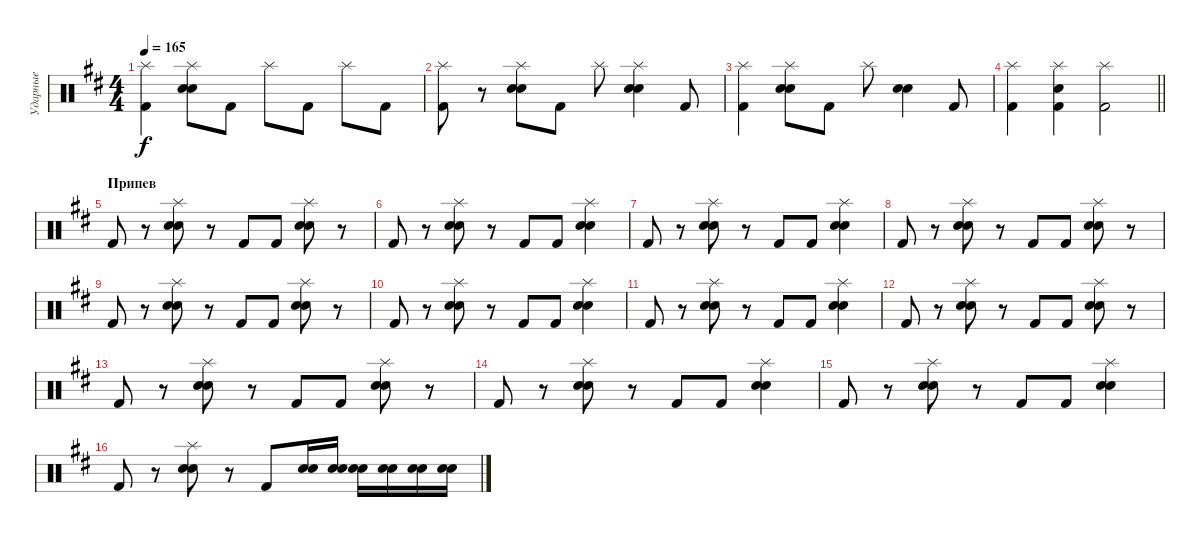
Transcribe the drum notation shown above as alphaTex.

\track ("Ударные" "Ударные") {instrument percussion}
\staff {score}
\articulation defaults
\ts (4 4)
\tempo 165
\clef neutral
\ks bminor
("Splash (hit)" "Kick (hit) 2").4{dy f} ("Splash (hit)" "Electric Snare (hit)" "Snare (hit) 2").8 "Kick (hit) 2".8 "Splash (hit)".8 "Kick (hit) 2".8 "Splash (hit)".8 "Kick (hit) 2".8 |
("Splash (hit)" "Kick (hit) 2").8 r.8 ("Splash (hit)" "Electric Snare (hit)" "Snare (hit) 2").8 "Kick (hit) 2".8 "Splash (hit)".8 ("Splash (hit)" "Electric Snare (hit)" "Snare (hit) 2").4 "Kick (hit) 2".8 |
("Splash (hit)" "Kick (hit) 2").4 ("Splash (hit)" "Electric Snare (hit)" "Snare (hit) 2").8 "Kick (hit) 2".8 "Splash (hit)".8 ("Electric Snare (hit)" "Snare (hit) 2").4 "Kick (hit) 2".8 |
\barLineRight lightlight
("Splash (hit)" "Kick (hit) 2").4 ("Splash (hit)" "Snare (hit) 2" "Kick (hit) 2").4 ("Splash (hit)" "Kick (hit) 2").2 |
\section ("" "Припев")
"Kick (hit) 2".8 r.8 ("Splash (hit)" "Electric Snare (hit)" "Snare (hit) 2").8 r.8 "Kick (hit) 2".8 "Kick (hit) 2".8 ("Splash (hit)" "Electric Snare (hit)" "Snare (hit) 2").8 r.8 |
"Kick (hit) 2".8 r.8 ("Splash (hit)" "Electric Snare (hit)" "Snare (hit) 2").8 r.8 "Kick (hit) 2".8 "Kick (hit) 2".8 ("Splash (hit)" "Electric Snare (hit)" "Snare (hit) 2").4 |
"Kick (hit) 2".8 r.8 ("Splash (hit)" "Electric Snare (hit)" "Snare (hit) 2").8 r.8 "Kick (hit) 2".8 "Kick (hit) 2".8 ("Splash (hit)" "Electric Snare (hit)" "Snare (hit) 2").4 |
"Kick (hit) 2".8 r.8 ("Splash (hit)" "Electric Snare (hit)" "Snare (hit) 2").8 r.8 "Kick (hit) 2".8 "Kick (hit) 2".8 ("Splash (hit)" "Electric Snare (hit)" "Snare (hit) 2").8 r.8 |
"Kick (hit) 2".8 r.8 ("Splash (hit)" "Electric Snare (hit)" "Snare (hit) 2").8 r.8 "Kick (hit) 2".8 "Kick (hit) 2".8 ("Splash (hit)" "Electric Snare (hit)" "Snare (hit) 2").8 r.8 |
"Kick (hit) 2".8 r.8 ("Splash (hit)" "Electric Snare (hit)" "Snare (hit) 2").8 r.8 "Kick (hit) 2".8 "Kick (hit) 2".8 ("Splash (hit)" "Electric Snare (hit)" "Snare (hit) 2").4 |
"Kick (hit) 2".8 r.8 ("Splash (hit)" "Electric Snare (hit)" "Snare (hit) 2").8 r.8 "Kick (hit) 2".8 "Kick (hit) 2".8 ("Splash (hit)" "Electric Snare (hit)" "Snare (hit) 2").4 |
"Kick (hit) 2".8 r.8 ("Splash (hit)" "Electric Snare (hit)" "Snare (hit) 2").8 r.8 "Kick (hit) 2".8 "Kick (hit) 2".8 ("Splash (hit)" "Electric Snare (hit)" "Snare (hit) 2").8 r.8 |
"Kick (hit) 2".8 r.8 ("Splash (hit)" "Electric Snare (hit)" "Snare (hit) 2").8 r.8 "Kick (hit) 2".8 "Kick (hit) 2".8 ("Splash (hit)" "Electric Snare (hit)" "Snare (hit) 2").8 r.8 |
"Kick (hit) 2".8 r.8 ("Splash (hit)" "Electric Snare (hit)" "Snare (hit) 2").8 r.8 "Kick (hit) 2".8 "Kick (hit) 2".8 ("Splash (hit)" "Electric Snare (hit)" "Snare (hit) 2").4 |
"Kick (hit) 2".8 r.8 ("Splash (hit)" "Electric Snare (hit)" "Snare (hit) 2").8 r.8 "Kick (hit) 2".8 "Kick (hit) 2".8 ("Splash (hit)" "Electric Snare (hit)" "Snare (hit) 2").4 |
"Kick (hit) 2".8 r.8 ("Splash (hit)" "Electric Snare (hit)" "Snare (hit) 2").8 r.8 "Kick (hit) 2".8 ("Electric Snare (hit)" "Snare (hit) 2").16 ("Electric Snare (hit)" "Snare (hit) 2").16 ("Electric Snare (hit)" "Snare (hit) 2").16 ("Electric Snare (hit)" "Snare (hit) 2").16 ("Electric Snare (hit)" "Snare (hit) 2").16 ("Electric Snare (hit)" "Snare (hit) 2").16
